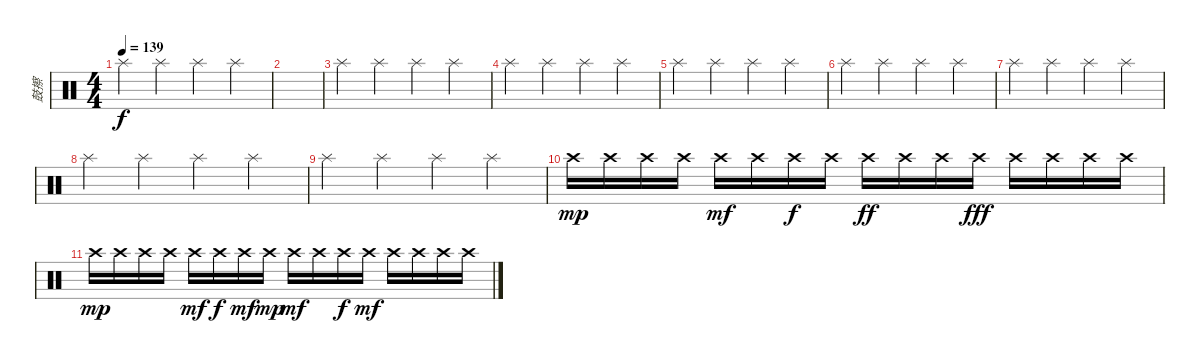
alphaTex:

\track ("鼓擦" "鼓擦") {instrument percussion}
\staff {score}
\articulation defaults
\ts (4 4)
\tempo 139
\clef neutral
\ks c "Splash (hit)".4{dy f} "Splash (hit)".4 "Splash (hit)".4 "Splash (hit)".4
|
|
"Splash (hit)".4 "Splash (hit)".4 "Splash (hit)".4 "Splash (hit)".4 |
"Splash (hit)".4 "Splash (hit)".4 "Splash (hit)".4 "Splash (hit)".4 |
"Splash (hit)".4 "Splash (hit)".4 "Splash (hit)".4 "Splash (hit)".4 |
"Splash (hit)".4 "Splash (hit)".4 "Splash (hit)".4 "Splash (hit)".4 |
"Splash (hit)".4 "Splash (hit)".4 "Splash (hit)".4 "Splash (hit)".4 |
"Splash (hit)".4 "Splash (hit)".4 "Splash (hit)".4 "Splash (hit)".4 |
"Splash (hit)".4 "Splash (hit)".4 "Splash (hit)".4 "Splash (hit)".4 |
"Crash high (hit)".16{dy mp} "Crash high (hit)".16 "Crash high (hit)".16 "Crash high (hit)".16 "Crash high (hit)".16{dy mf} "Crash high (hit)".16 "Crash high (hit)".16{dy f} "Crash high (hit)".16 "Crash high (hit)".16{dy ff} "Crash high (hit)".16 "Crash high (hit)".16 "Crash high (hit)".16{dy fff} "Crash high (hit)".16 "Crash high (hit)".16 "Crash high (hit)".16 "Crash high (hit)".16 |
"Crash high (hit)".16{dy mp} "Crash high (hit)".16 "Crash high (hit)".16 "Crash high (hit)".16 "Crash high (hit)".16{dy mf} "Crash high (hit)".16{dy f} "Crash high (hit)".16{dy mf} "Crash high (hit)".16{dy mp} "Crash high (hit)".16{dy mf} "Crash high (hit)".16 "Crash high (hit)".16{dy f} "Crash high (hit)".16{dy mf} "Crash high (hit)".16 "Crash high (hit)".16 "Crash high (hit)".16 "Crash high (hit)".16
